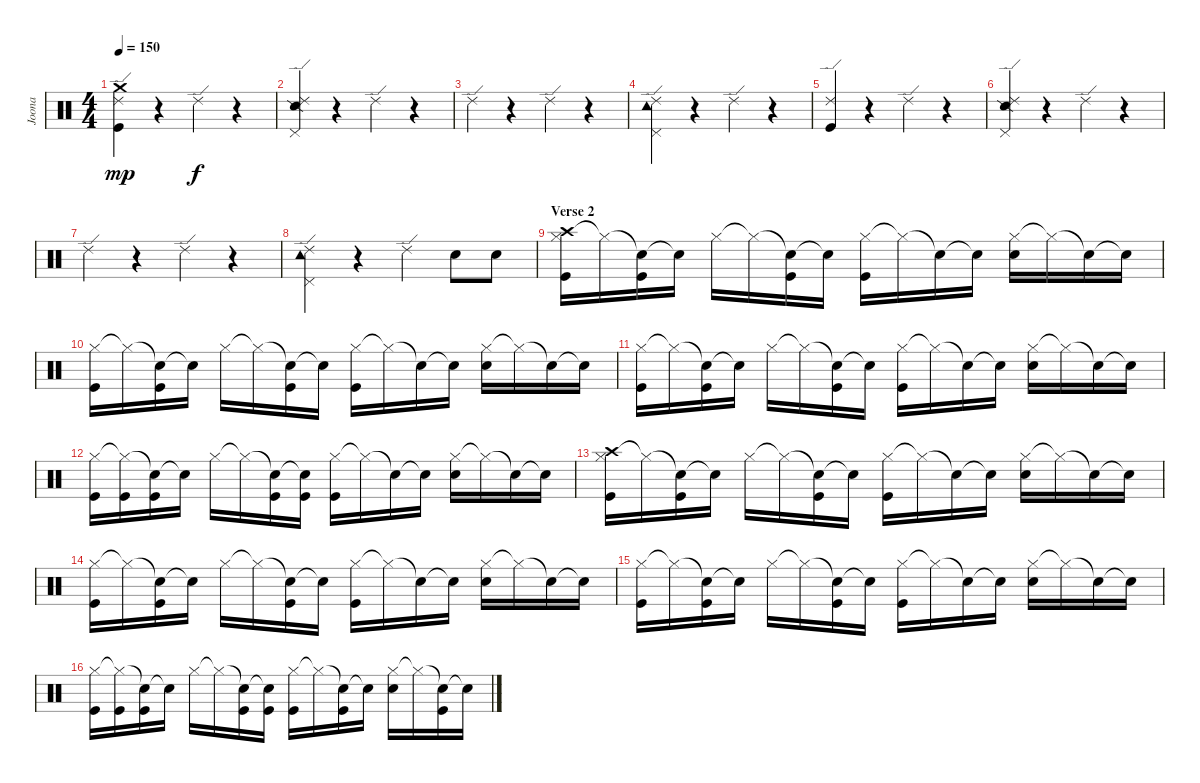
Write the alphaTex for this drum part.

\track ("Joona" "Joona") {instrument percussion}
\staff {score}
\articulation defaults
\ts (4 4)
\tempo 150
\clef neutral
\ks c
("Crash medium (hit)" "Ride (edge) 2" "Kick (hit)").4{dy mp} r.4 "Ride (edge) 2".4{dy f} r.4 |
("Ride (edge) 2" "Snare (side stick) 2" "Pedal Hi-Hat (hit)").4 r.4 "Ride (edge) 2".4 r.4 |
"Ride (edge) 2".4 r.4 "Ride (edge) 2".4 r.4 |
("Tambourine (hit)" "Ride (edge) 2" "Pedal Hi-Hat (hit)").4 r.4 "Ride (edge) 2".4 r.4 |
("Ride (edge) 2" "Kick (hit)").4 r.4 "Ride (edge) 2".4 r.4 |
("Ride (edge) 2" "Snare (side stick) 2" "Pedal Hi-Hat (hit)").4 r.4 "Ride (edge) 2".4 r.4 |
"Ride (edge) 2".4 r.4 "Ride (edge) 2".4 r.4 |
("Tambourine (hit)" "Ride (edge) 2" "Pedal Hi-Hat (hit)").4 r.4 "Ride (edge) 2".4 "Snare (hit) 2".8 "Snare (hit) 2".8 |
\section ("" "Verse 2")
("Crash high (hit)" "Hi-Hat (closed)" "Kick (hit)").16 "Hi-Hat (closed)"{t}.16 ("Snare (hit)"{t} "Kick (hit)").16 "Snare (hit)"{t}.16 "Hi-Hat (closed)".16 "Hi-Hat (closed)"{t}.16 ("Snare (hit)"{t} "Kick (hit)").16 "Snare (hit)"{t}.16 ("Hi-Hat (closed)" "Kick (hit)").16 "Hi-Hat (closed)"{t}.16 "Snare (hit)"{t}.16 "Snare (hit)"{t}.16 ("Hi-Hat (closed)" "Snare (hit) 2").16 "Hi-Hat (closed)"{t}.16 "Snare (hit)"{t}.16 "Snare (hit)"{t}.16 |
("Hi-Hat (closed)" "Kick (hit)").16 "Hi-Hat (closed)"{t}.16 ("Snare (hit)"{t} "Kick (hit)").16 "Snare (hit)"{t}.16 "Hi-Hat (closed)".16 "Hi-Hat (closed)"{t}.16 ("Snare (hit)"{t} "Kick (hit)").16 "Snare (hit)"{t}.16 ("Hi-Hat (closed)" "Kick (hit)").16 "Hi-Hat (closed)"{t}.16 "Snare (hit)"{t}.16 "Snare (hit)"{t}.16 ("Hi-Hat (closed)" "Snare (hit) 2").16 "Hi-Hat (closed)"{t}.16 "Snare (hit)"{t}.16 "Snare (hit)"{t}.16 |
("Hi-Hat (closed)" "Kick (hit)").16 "Hi-Hat (closed)"{t}.16 ("Snare (hit)"{t} "Kick (hit)").16 "Snare (hit)"{t}.16 "Hi-Hat (closed)".16 "Hi-Hat (closed)"{t}.16 ("Snare (hit)"{t} "Kick (hit)").16 "Snare (hit)"{t}.16 ("Hi-Hat (closed)" "Kick (hit)").16 "Hi-Hat (closed)"{t}.16 "Snare (hit)"{t}.16 "Snare (hit)"{t}.16 ("Hi-Hat (closed)" "Snare (hit) 2").16 "Hi-Hat (closed)"{t}.16 "Snare (hit)"{t}.16 "Snare (hit)"{t}.16 |
("Hi-Hat (closed)" "Kick (hit)").16 ("Hi-Hat (closed)"{t} "Kick (hit)").16 ("Snare (hit)"{t} "Kick (hit)").16 "Snare (hit)"{t}.16 "Hi-Hat (closed)".16 "Hi-Hat (closed)"{t}.16 ("Snare (hit)"{t} "Kick (hit)").16 ("Snare (hit)"{t} "Kick (hit)").16 ("Hi-Hat (closed)" "Kick (hit)").16 "Hi-Hat (closed)"{t}.16 "Snare (hit)"{t}.16 "Snare (hit)"{t}.16 ("Hi-Hat (closed)" "Snare (hit) 2").16 "Hi-Hat (closed)"{t}.16 "Snare (hit)"{t}.16 "Snare (hit)"{t}.16 |
("Crash high (hit)" "Hi-Hat (closed)" "Kick (hit)").16 "Hi-Hat (closed)"{t}.16 ("Snare (hit)"{t} "Kick (hit)").16 "Snare (hit)"{t}.16 "Hi-Hat (closed)".16 "Hi-Hat (closed)"{t}.16 ("Snare (hit)"{t} "Kick (hit)").16 "Snare (hit)"{t}.16 ("Hi-Hat (closed)" "Kick (hit)").16 "Hi-Hat (closed)"{t}.16 "Snare (hit)"{t}.16 "Snare (hit)"{t}.16 ("Hi-Hat (closed)" "Snare (hit) 2").16 "Hi-Hat (closed)"{t}.16 "Snare (hit)"{t}.16 "Snare (hit)"{t}.16 |
("Hi-Hat (closed)" "Kick (hit)").16 "Hi-Hat (closed)"{t}.16 ("Snare (hit)"{t} "Kick (hit)").16 "Snare (hit)"{t}.16 "Hi-Hat (closed)".16 "Hi-Hat (closed)"{t}.16 ("Snare (hit)"{t} "Kick (hit)").16 "Snare (hit)"{t}.16 ("Hi-Hat (closed)" "Kick (hit)").16 "Hi-Hat (closed)"{t}.16 "Snare (hit)"{t}.16 "Snare (hit)"{t}.16 ("Hi-Hat (closed)" "Snare (hit) 2").16 "Hi-Hat (closed)"{t}.16 "Snare (hit)"{t}.16 "Snare (hit)"{t}.16 |
("Hi-Hat (closed)" "Kick (hit)").16 "Hi-Hat (closed)"{t}.16 ("Snare (hit)"{t} "Kick (hit)").16 "Snare (hit)"{t}.16 "Hi-Hat (closed)".16 "Hi-Hat (closed)"{t}.16 ("Snare (hit)"{t} "Kick (hit)").16 "Snare (hit)"{t}.16 ("Hi-Hat (closed)" "Kick (hit)").16 "Hi-Hat (closed)"{t}.16 "Snare (hit)"{t}.16 "Snare (hit)"{t}.16 ("Hi-Hat (closed)" "Snare (hit) 2").16 "Hi-Hat (closed)"{t}.16 "Snare (hit)"{t}.16 "Snare (hit)"{t}.16 |
("Hi-Hat (closed)" "Kick (hit)").16 ("Hi-Hat (closed)"{t} "Kick (hit)").16 ("Snare (hit)"{t} "Kick (hit)").16 "Snare (hit)"{t}.16 "Hi-Hat (closed)".16 "Hi-Hat (closed)"{t}.16 ("Snare (hit)"{t} "Kick (hit)").16 ("Snare (hit)"{t} "Kick (hit)").16 ("Hi-Hat (closed)" "Kick (hit)").16 "Hi-Hat (closed)"{t}.16 ("Snare (hit)"{t} "Kick (hit)").16 "Snare (hit)"{t}.16 ("Hi-Hat (closed)" "Snare (hit) 2").16 "Hi-Hat (closed)"{t}.16 ("Snare (hit)"{t} "Kick (hit)").16 "Snare (hit)"{t}.16
